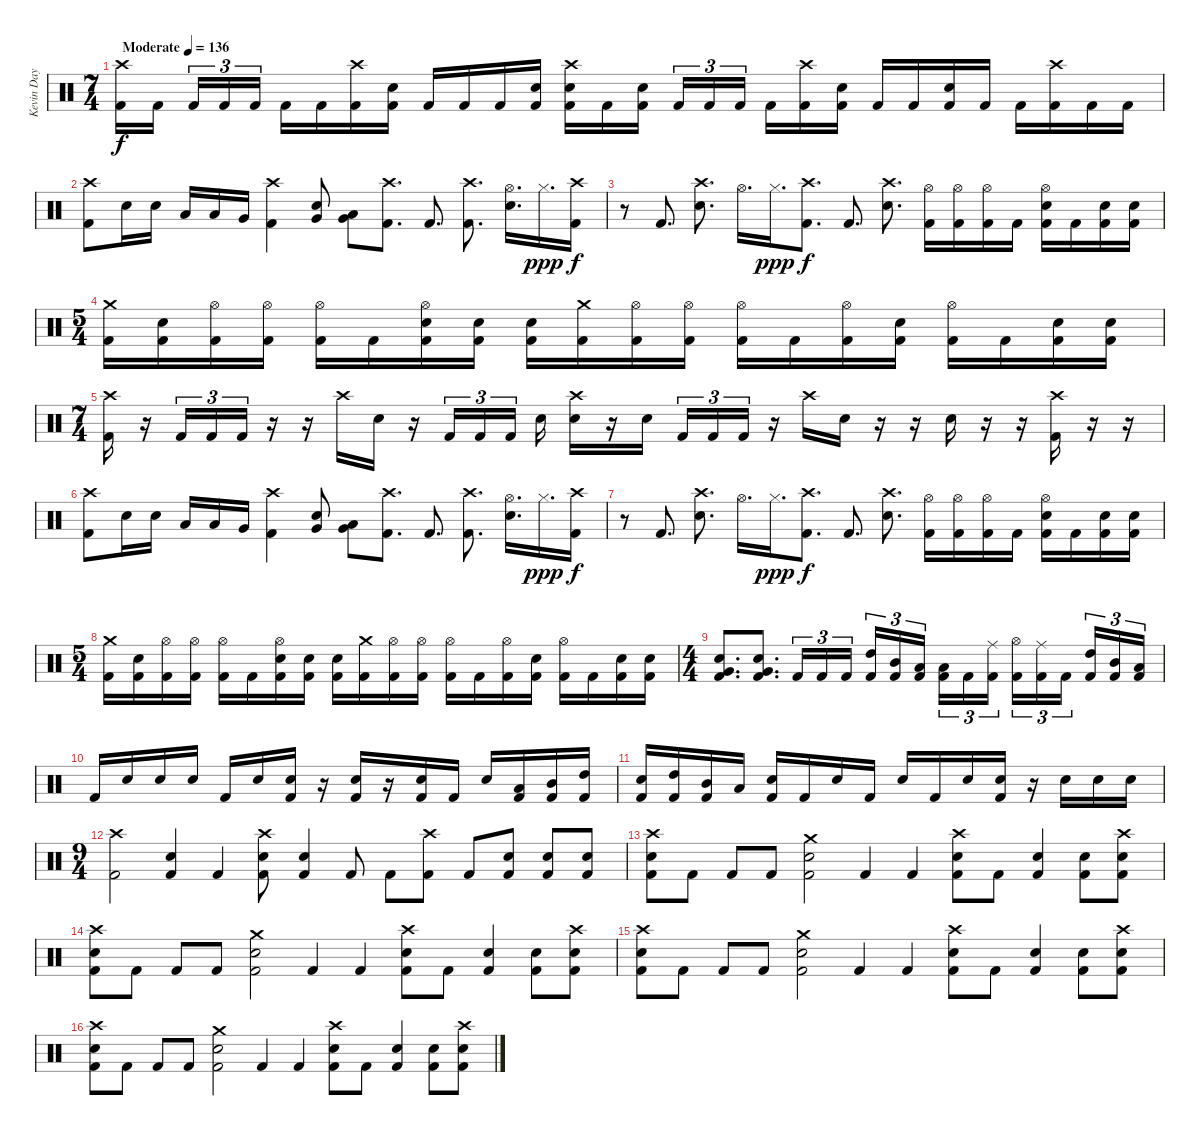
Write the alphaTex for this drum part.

\track ("Kevin Day" "Kevin Day") {instrument percussion}
\staff {score}
\articulation defaults
\ts (7 4)
\tempo (136 "Moderate")
\clef neutral
\ks c
("Crash high (hit)" "Kick (hit) 2").16{dy f} "Kick (hit) 2".16{beam splitsecondary} "Kick (hit) 2".16{tu (3 2)} "Kick (hit) 2".16{tu (3 2)} "Kick (hit) 2".16{tu (3 2)} "Kick (hit) 2".16 "Kick (hit) 2".16 ("Crash high (hit)" "Kick (hit) 2").16 ("Electric Snare (hit)" "Kick (hit) 2").16 "Kick (hit) 2".16 "Kick (hit) 2".16 "Kick (hit) 2".16 ("Electric Snare (hit)" "Kick (hit) 2").16 ("Crash high (hit)" "Electric Snare (hit)" "Kick (hit) 2").16 "Kick (hit) 2".16 ("Electric Snare (hit)" "Kick (hit) 2").16{beam splitsecondary} "Kick (hit) 2".16{tu (3 2)} "Kick (hit) 2".16{tu (3 2)} "Kick (hit) 2".16{tu (3 2) beam splitsecondary} "Kick (hit) 2".16 ("Crash high (hit)" "Kick (hit) 2").16 ("Electric Snare (hit)" "Kick (hit) 2").16 "Kick (hit) 2".16 "Kick (hit) 2".16 ("Electric Snare (hit)" "Kick (hit) 2").16 "Kick (hit) 2".16 "Kick (hit) 2".16 ("Crash high (hit)" "Kick (hit) 2").16 "Kick (hit) 2".16 "Kick (hit) 2".16 |
("Crash high (hit)" "Kick (hit) 2").8 "Electric Snare (hit)".16 "Electric Snare (hit)".16 "Low Tom (hit)".16 "Low Tom (hit)".16 "Very Low Tom (hit)".16 ("Crash high (hit)" "Kick (hit) 2").4 ("Very Low Tom (hit)" "Electric Snare (hit)").8 ("Very Low Tom (hit)" "Low Floor Tom (hit)").8 ("Crash high (hit)" "Kick (hit) 2").8{d} "Kick (hit) 2".8{d} ("Crash high (hit)" "Kick (hit) 2").8{d} ("Hi-Hat (open)" "Electric Snare (hit)").16{d} "Hi-Hat (closed)".16{d dy ppp} ("Crash high (hit)" "Kick (hit) 2").16{dy f} |
r.8 "Kick (hit) 2".8{d} ("Crash high (hit)" "Electric Snare (hit)").8{d} "Hi-Hat (open)".16{d} "Hi-Hat (closed)".16{d dy ppp} ("Crash high (hit)" "Kick (hit) 2").8{d dy f} "Kick (hit) 2".8{d} ("Crash high (hit)" "Electric Snare (hit)").8{d} ("Hi-Hat (open)" "Kick (hit) 2").16 ("Hi-Hat (open)" "Kick (hit) 2").16 ("Hi-Hat (open)" "Kick (hit) 2").16 "Kick (hit) 2".16 ("Hi-Hat (open)" "Electric Snare (hit)" "Kick (hit) 2").16 "Kick (hit) 2".16 ("Electric Snare (hit)" "Kick (hit) 2").16 ("Electric Snare (hit)" "Kick (hit) 2").16 |
\ts (5 4)
("Crash medium (hit)" "Kick (hit) 2").16 ("Electric Snare (hit)" "Kick (hit) 2").16 ("Hi-Hat (open)" "Kick (hit) 2").16 ("Hi-Hat (open)" "Kick (hit) 2").16 ("Hi-Hat (open)" "Kick (hit) 2").16 "Kick (hit) 2".16 ("Hi-Hat (open)" "Electric Snare (hit)" "Kick (hit) 2").16 ("Electric Snare (hit)" "Kick (hit) 2").16 ("Electric Snare (hit)" "Kick (hit) 2").16 ("Crash medium (hit)" "Kick (hit) 2").16 ("Hi-Hat (open)" "Kick (hit) 2").16 ("Hi-Hat (open)" "Kick (hit) 2").16 ("Hi-Hat (open)" "Kick (hit) 2").16 "Kick (hit) 2".16 ("Hi-Hat (open)" "Kick (hit) 2").16 ("Electric Snare (hit)" "Kick (hit) 2").16 ("Hi-Hat (open)" "Kick (hit) 2").16 "Kick (hit) 2".16 ("Electric Snare (hit)" "Kick (hit) 2").16 ("Electric Snare (hit)" "Kick (hit) 2").16 |
\ts (7 4)
("Crash high (hit)" "Kick (hit) 2").16 r.16 "Kick (hit) 2".16{tu (3 2)} "Kick (hit) 2".16{tu (3 2)} "Kick (hit) 2".16{tu (3 2)} r.16 r.16 "Crash high (hit)".16 "Electric Snare (hit)".16 r.16 "Kick (hit) 2".16{tu (3 2)} "Kick (hit) 2".16{tu (3 2)} "Kick (hit) 2".16{tu (3 2) beam splitsecondary} "Electric Snare (hit)".16 ("Crash high (hit)" "Electric Snare (hit)").16 r.16 "Electric Snare (hit)".16{beam splitsecondary} "Kick (hit) 2".16{tu (3 2)} "Kick (hit) 2".16{tu (3 2)} "Kick (hit) 2".16{tu (3 2)} r.16 "Crash high (hit)".16 "Electric Snare (hit)".16 r.16 r.16 "Electric Snare (hit)".16 r.16 r.16 ("Crash high (hit)" "Kick (hit) 2").16 r.16 r.16 |
("Crash high (hit)" "Kick (hit) 2").8 "Electric Snare (hit)".16 "Electric Snare (hit)".16 "Low Tom (hit)".16 "Low Tom (hit)".16 "Very Low Tom (hit)".16 ("Crash high (hit)" "Kick (hit) 2").4 ("Very Low Tom (hit)" "Electric Snare (hit)").8 ("Very Low Tom (hit)" "Low Floor Tom (hit)").8 ("Crash high (hit)" "Kick (hit) 2").8{d} "Kick (hit) 2".8{d} ("Crash high (hit)" "Kick (hit) 2").8{d} ("Hi-Hat (open)" "Electric Snare (hit)").16{d} "Hi-Hat (closed)".16{d dy ppp} ("Crash high (hit)" "Kick (hit) 2").16{dy f} |
r.8 "Kick (hit) 2".8{d} ("Crash high (hit)" "Electric Snare (hit)").8{d} "Hi-Hat (open)".16{d} "Hi-Hat (closed)".16{d dy ppp} ("Crash high (hit)" "Kick (hit) 2").8{d dy f} "Kick (hit) 2".8{d} ("Crash high (hit)" "Electric Snare (hit)").8{d} ("Hi-Hat (open)" "Kick (hit) 2").16 ("Hi-Hat (open)" "Kick (hit) 2").16 ("Hi-Hat (open)" "Kick (hit) 2").16 "Kick (hit) 2".16 ("Hi-Hat (open)" "Electric Snare (hit)" "Kick (hit) 2").16 "Kick (hit) 2".16 ("Electric Snare (hit)" "Kick (hit) 2").16 ("Electric Snare (hit)" "Kick (hit) 2").16 |
\ts (5 4)
("Crash medium (hit)" "Kick (hit) 2").16 ("Electric Snare (hit)" "Kick (hit) 2").16 ("Hi-Hat (open)" "Kick (hit) 2").16 ("Hi-Hat (open)" "Kick (hit) 2").16 ("Hi-Hat (open)" "Kick (hit) 2").16 "Kick (hit) 2".16 ("Hi-Hat (open)" "Electric Snare (hit)" "Kick (hit) 2").16 ("Electric Snare (hit)" "Kick (hit) 2").16 ("Electric Snare (hit)" "Kick (hit) 2").16 ("Crash medium (hit)" "Kick (hit) 2").16 ("Hi-Hat (open)" "Kick (hit) 2").16 ("Hi-Hat (open)" "Kick (hit) 2").16 ("Hi-Hat (open)" "Kick (hit) 2").16 "Kick (hit) 2".16 ("Hi-Hat (open)" "Kick (hit) 2").16 ("Electric Snare (hit)" "Kick (hit) 2").16 ("Hi-Hat (open)" "Kick (hit) 2").16 "Kick (hit) 2".16 ("Electric Snare (hit)" "Kick (hit) 2").16 ("Electric Snare (hit)" "Kick (hit) 2").16 |
\ts (4 4)
("Very Low Tom (hit)" "Electric Snare (hit)" "Kick (hit) 2").8{d} ("Very Low Tom (hit)" "Electric Snare (hit)" "Kick (hit) 2").8{d} "Kick (hit) 2".16{tu (3 2)} "Kick (hit) 2".16{tu (3 2)} "Kick (hit) 2".16{tu (3 2)} ("High Tom (hit)" "Kick (hit) 2").16{tu (3 2)} ("Mid Tom (hit)" "Kick (hit) 2").16{tu (3 2)} ("Low Tom (hit)" "Kick (hit) 2").16{tu (3 2) beam splitsecondary} ("Low Tom (hit)" "Kick (hit) 2").16{tu (3 2)} "Kick (hit) 2".16{tu (3 2)} ("Ride (middle)" "Kick (hit) 2").16{tu (3 2)} ("Hi-Hat (open)" "Kick (hit) 2").16{tu (3 2)} ("Ride (middle)" "Kick (hit) 2").16{tu (3 2)} "Kick (hit) 2".16{tu (3 2) beam splitsecondary} ("High Tom (hit)" "Kick (hit) 2").16{tu (3 2)} ("Mid Tom (hit)" "Kick (hit) 2").16{tu (3 2)} ("Low Tom (hit)" "Kick (hit) 2").16{tu (3 2)} |
"Kick (hit) 2".16 "Electric Snare (hit)".16 "Electric Snare (hit)".16 "Electric Snare (hit)".16 "Kick (hit) 2".16 "Electric Snare (hit)".16 ("Electric Snare (hit)" "Kick (hit) 2").16 r.16 ("Electric Snare (hit)" "Kick (hit) 2").16 r.16 ("Electric Snare (hit)" "Kick (hit) 2").16 "Kick (hit) 2".16 "Electric Snare (hit)".16 ("Low Tom (hit)" "Kick (hit) 2").16 ("Mid Tom (hit)" "Kick (hit) 2").16 ("High Tom (hit)" "Kick (hit) 2").16 |
("Electric Snare (hit)" "Kick (hit) 2").16 ("High Tom (hit)" "Kick (hit) 2").16 ("Mid Tom (hit)" "Kick (hit) 2").16 "Low Tom (hit)".16 ("Electric Snare (hit)" "Kick (hit) 2").16 "Kick (hit) 2".16 "Electric Snare (hit)".16 "Kick (hit) 2".16 "Electric Snare (hit)".16 "Kick (hit) 2".16 "Electric Snare (hit)".16 ("Electric Snare (hit)" "Kick (hit) 2").16 r.16 "Electric Snare (hit)".16 "Electric Snare (hit)".16 "Electric Snare (hit)".16 |
\ts (9 4)
("Crash high (hit)" "Kick (hit) 2").2 ("Electric Snare (hit)" "Kick (hit) 2").4 "Kick (hit) 2".4 ("Crash high (hit)" "Electric Snare (hit)" "Kick (hit) 2").8 ("Electric Snare (hit)" "Kick (hit) 2").4 "Kick (hit) 2".8 "Kick (hit) 2".8 ("Crash high (hit)" "Kick (hit) 2").8 "Kick (hit) 2".8 ("Electric Snare (hit)" "Kick (hit) 2").8 ("Electric Snare (hit)" "Kick (hit) 2").8 ("Electric Snare (hit)" "Kick (hit) 2").8 |
("Crash high (hit)" "Electric Snare (hit)" "Kick (hit) 2").8 "Kick (hit) 2".8 "Kick (hit) 2".8 "Kick (hit) 2".8 ("Crash medium (hit)" "Electric Snare (hit)" "Kick (hit) 2").2 "Kick (hit) 2".4 "Kick (hit) 2".4 ("Crash high (hit)" "Electric Snare (hit)" "Kick (hit) 2").8 "Kick (hit) 2".8 ("Electric Snare (hit)" "Kick (hit) 2").4 ("Electric Snare (hit)" "Kick (hit) 2").8 ("Crash high (hit)" "Electric Snare (hit)" "Kick (hit) 2").8 |
("Crash high (hit)" "Electric Snare (hit)" "Kick (hit) 2").8 "Kick (hit) 2".8 "Kick (hit) 2".8 "Kick (hit) 2".8 ("Crash medium (hit)" "Electric Snare (hit)" "Kick (hit) 2").2 "Kick (hit) 2".4 "Kick (hit) 2".4 ("Crash high (hit)" "Electric Snare (hit)" "Kick (hit) 2").8 "Kick (hit) 2".8 ("Electric Snare (hit)" "Kick (hit) 2").4 ("Electric Snare (hit)" "Kick (hit) 2").8 ("Crash high (hit)" "Electric Snare (hit)" "Kick (hit) 2").8 |
("Crash high (hit)" "Electric Snare (hit)" "Kick (hit) 2").8 "Kick (hit) 2".8 "Kick (hit) 2".8 "Kick (hit) 2".8 ("Crash medium (hit)" "Electric Snare (hit)" "Kick (hit) 2").2 "Kick (hit) 2".4 "Kick (hit) 2".4 ("Crash high (hit)" "Electric Snare (hit)" "Kick (hit) 2").8 "Kick (hit) 2".8 ("Electric Snare (hit)" "Kick (hit) 2").4 ("Electric Snare (hit)" "Kick (hit) 2").8 ("Crash high (hit)" "Electric Snare (hit)" "Kick (hit) 2").8 |
("Crash high (hit)" "Electric Snare (hit)" "Kick (hit) 2").8 "Kick (hit) 2".8 "Kick (hit) 2".8 "Kick (hit) 2".8 ("Crash medium (hit)" "Electric Snare (hit)" "Kick (hit) 2").2 "Kick (hit) 2".4 "Kick (hit) 2".4 ("Crash high (hit)" "Electric Snare (hit)" "Kick (hit) 2").8 "Kick (hit) 2".8 ("Electric Snare (hit)" "Kick (hit) 2").4 ("Electric Snare (hit)" "Kick (hit) 2").8 ("Crash high (hit)" "Electric Snare (hit)" "Kick (hit) 2").8
